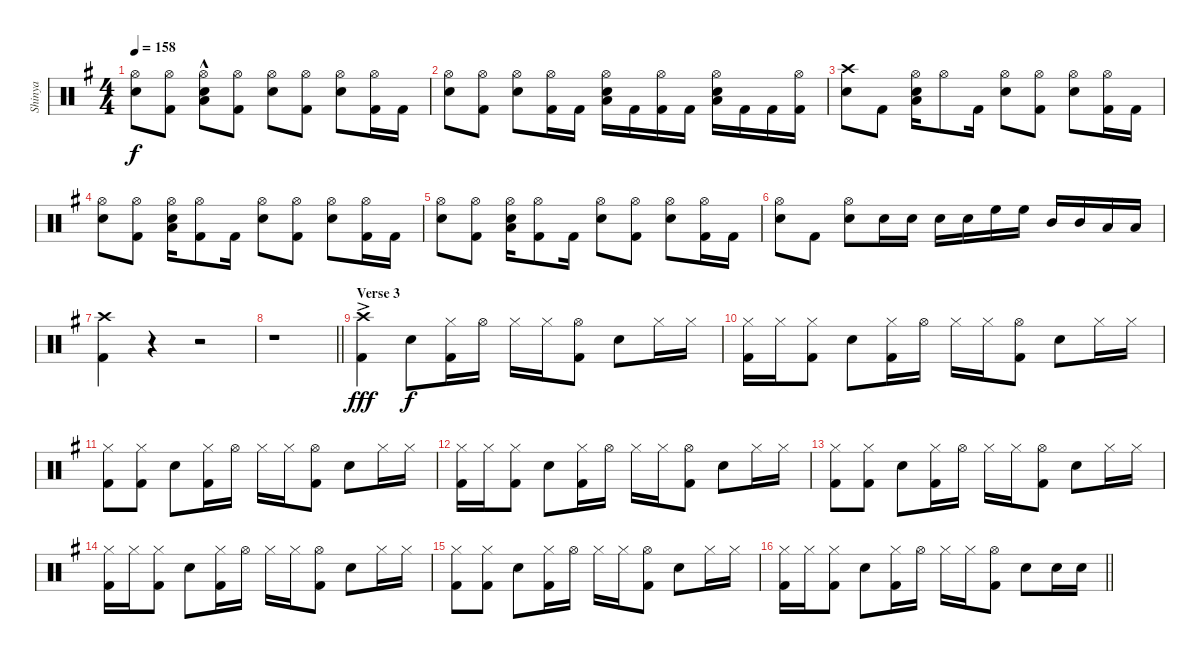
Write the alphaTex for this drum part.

\track ("Shinya" "Shinya") {instrument percussion}
\staff {score}
\articulation defaults
\ts (4 4)
\tempo 158
\clef neutral
\ks g
("Hi-Hat (open)" "Snare (hit) 2").8{dy f} ("Hi-Hat (open)" "Kick (hit) 2").8 ("Hi-Hat (open)" "Snare (hit) 2" "Low Floor Tom (hit)"{hac}).8 ("Hi-Hat (open)" "Kick (hit) 2").8 ("Hi-Hat (open)" "Snare (hit) 2").8 ("Hi-Hat (open)" "Kick (hit) 2").8 ("Hi-Hat (open)" "Snare (hit) 2").8 ("Hi-Hat (open)" "Kick (hit) 2").16 "Kick (hit) 2".16 |
("Hi-Hat (open)" "Snare (hit) 2").8 ("Hi-Hat (open)" "Kick (hit) 2").8 ("Hi-Hat (open)" "Snare (hit) 2").8 ("Hi-Hat (open)" "Kick (hit) 2").16 "Kick (hit) 2".16 ("Hi-Hat (open)" "Snare (hit) 2" "Low Floor Tom (hit)").16 "Kick (hit) 2".16 ("Hi-Hat (open)" "Kick (hit) 2").16 "Kick (hit) 2".16 ("Hi-Hat (open)" "Snare (hit) 2" "Low Floor Tom (hit)").16 "Kick (hit) 2".16 "Kick (hit) 2".16 ("Hi-Hat (open)" "Kick (hit) 2").16 |
("Crash high (hit)" "Snare (hit) 2").8 "Kick (hit) 2".8 ("Hi-Hat (open)" "Low Floor Tom (hit)" "Snare (hit) 2").16 "Hi-Hat (open)".8 "Kick (hit) 2".16 ("Hi-Hat (open)" "Snare (hit) 2").8 ("Hi-Hat (open)" "Kick (hit) 2").8 ("Hi-Hat (open)" "Snare (hit) 2").8 ("Hi-Hat (open)" "Kick (hit) 2").16 "Kick (hit) 2".16 |
("Hi-Hat (open)" "Snare (hit) 2").8 ("Hi-Hat (open)" "Kick (hit) 2").8 ("Hi-Hat (open)" "Low Floor Tom (hit)" "Snare (hit) 2").16 ("Hi-Hat (open)" "Kick (hit) 2").8 "Kick (hit) 2".16 ("Hi-Hat (open)" "Snare (hit) 2").8 ("Hi-Hat (open)" "Kick (hit) 2").8 ("Hi-Hat (open)" "Snare (hit) 2").8 ("Hi-Hat (open)" "Kick (hit) 2").16 "Kick (hit) 2".16 |
("Hi-Hat (open)" "Snare (hit) 2").8 ("Hi-Hat (open)" "Kick (hit) 2").8 ("Hi-Hat (open)" "Low Floor Tom (hit)" "Snare (hit) 2").16 ("Hi-Hat (open)" "Kick (hit) 2").8 "Kick (hit) 2".16 ("Hi-Hat (open)" "Snare (hit) 2").8 ("Hi-Hat (open)" "Kick (hit) 2").8 ("Hi-Hat (open)" "Snare (hit) 2").8 ("Hi-Hat (open)" "Kick (hit) 2").16 "Kick (hit) 2".16 |
("Hi-Hat (open)" "Snare (hit) 2").8 "Kick (hit) 2".8 ("Hi-Hat (open)" "Snare (hit) 2").8 "Snare (hit) 2".16 "Snare (hit) 2".16 "Snare (hit) 2".16 "Snare (hit) 2".16 "High Floor Tom (hit)".16 "High Floor Tom (hit)".16 "Mid Tom (hit)".16 "Mid Tom (hit)".16 "Low Tom (hit)".16 "Low Tom (hit)".16 |
("Crash high (hit)" "Kick (hit) 2").4 r.4 r.2 |
\barLineRight lightlight
r.1 |
\section ("" "Verse 3")
("Crash high (hit)"{ac} "Kick (hit) 2").4{dy fff} "Snare (hit) 2".8{dy f} ("Hi-Hat (closed)" "Kick (hit) 2").16 "Hi-Hat (open)".16 "Hi-Hat (closed)".16 "Hi-Hat (closed)".16 ("Hi-Hat (open)" "Kick (hit) 2").8 "Snare (hit) 2".8 "Hi-Hat (closed)".16 "Hi-Hat (closed)".16 |
("Hi-Hat (closed)" "Kick (hit) 2").16 "Hi-Hat (closed)".16 ("Hi-Hat (closed)" "Kick (hit) 2").8 "Snare (hit) 2".8 ("Hi-Hat (closed)" "Kick (hit) 2").16 "Hi-Hat (open)".16 "Hi-Hat (closed)".16 "Hi-Hat (closed)".16 ("Hi-Hat (open)" "Kick (hit) 2").8 "Snare (hit) 2".8 "Hi-Hat (closed)".16 "Hi-Hat (closed)".16 |
("Hi-Hat (closed)" "Kick (hit) 2").8 ("Hi-Hat (closed)" "Kick (hit) 2").8 "Snare (hit) 2".8 ("Hi-Hat (closed)" "Kick (hit) 2").16 "Hi-Hat (open)".16 "Hi-Hat (closed)".16 "Hi-Hat (closed)".16 ("Hi-Hat (open)" "Kick (hit) 2").8 "Snare (hit) 2".8 "Hi-Hat (closed)".16 "Hi-Hat (closed)".16 |
("Hi-Hat (closed)" "Kick (hit) 2").16 "Hi-Hat (closed)".16 ("Hi-Hat (closed)" "Kick (hit) 2").8 "Snare (hit) 2".8 ("Hi-Hat (closed)" "Kick (hit) 2").16 "Hi-Hat (open)".16 "Hi-Hat (closed)".16 "Hi-Hat (closed)".16 ("Hi-Hat (open)" "Kick (hit) 2").8 "Snare (hit) 2".8 "Hi-Hat (closed)".16 "Hi-Hat (closed)".16 |
("Hi-Hat (closed)" "Kick (hit) 2").8 ("Hi-Hat (closed)" "Kick (hit) 2").8 "Snare (hit) 2".8 ("Hi-Hat (closed)" "Kick (hit) 2").16 "Hi-Hat (open)".16 "Hi-Hat (closed)".16 "Hi-Hat (closed)".16 ("Hi-Hat (open)" "Kick (hit) 2").8 "Snare (hit) 2".8 "Hi-Hat (closed)".16 "Hi-Hat (closed)".16 |
("Hi-Hat (closed)" "Kick (hit) 2").16 "Hi-Hat (closed)".16 ("Hi-Hat (closed)" "Kick (hit) 2").8 "Snare (hit) 2".8 ("Hi-Hat (closed)" "Kick (hit) 2").16 "Hi-Hat (open)".16 "Hi-Hat (closed)".16 "Hi-Hat (closed)".16 ("Hi-Hat (open)" "Kick (hit) 2").8 "Snare (hit) 2".8 "Hi-Hat (closed)".16 "Hi-Hat (closed)".16 |
("Hi-Hat (closed)" "Kick (hit) 2").8 ("Hi-Hat (closed)" "Kick (hit) 2").8 "Snare (hit) 2".8 ("Hi-Hat (closed)" "Kick (hit) 2").16 "Hi-Hat (open)".16 "Hi-Hat (closed)".16 "Hi-Hat (closed)".16 ("Hi-Hat (open)" "Kick (hit) 2").8 "Snare (hit) 2".8 "Hi-Hat (closed)".16 "Hi-Hat (closed)".16 |
\barLineRight lightlight
("Hi-Hat (closed)" "Kick (hit) 2").16 "Hi-Hat (closed)".16 ("Hi-Hat (closed)" "Kick (hit) 2").8 "Snare (hit) 2".8 ("Hi-Hat (closed)" "Kick (hit) 2").16 "Hi-Hat (open)".16 "Hi-Hat (closed)".16 "Hi-Hat (closed)".16 ("Hi-Hat (open)" "Kick (hit) 2").8 "Snare (hit) 2".8 "Snare (hit) 2".16 "Snare (hit) 2".16
